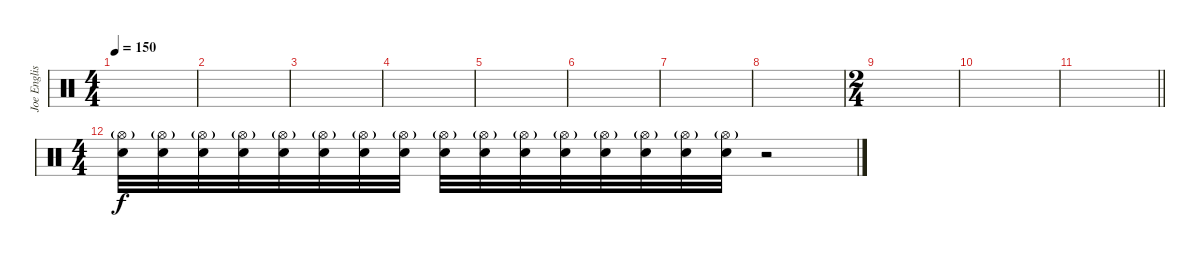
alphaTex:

\track ("Joe English" "Joe Englis") {instrument percussion}
\staff {score}
\articulation defaults
\ts (4 4)
\tempo 150
\clef neutral
\ks c
|
|
|
|
|
|
|
|
\ts (2 4)
|
|
\barLineRight lightlight
|
\ts (4 4)
("Hi-Hat (open)"{g} "Snare (hit) 2").32{volume 0} ("Hi-Hat (open)"{g} "Snare (hit) 2").32{volume 13} ("Hi-Hat (open)"{g} "Snare (hit) 2").32 ("Hi-Hat (open)"{g} "Snare (hit) 2").32 ("Hi-Hat (open)"{g} "Snare (hit) 2").32 ("Hi-Hat (open)"{g} "Snare (hit) 2").32 ("Hi-Hat (open)"{g} "Snare (hit) 2").32 ("Hi-Hat (open)"{g} "Snare (hit) 2").32 ("Hi-Hat (open)"{g} "Snare (hit) 2").32 ("Hi-Hat (open)"{g} "Snare (hit) 2").32 ("Hi-Hat (open)"{g} "Snare (hit) 2").32 ("Hi-Hat (open)"{g} "Snare (hit) 2").32 ("Hi-Hat (open)"{g} "Snare (hit) 2").32 ("Hi-Hat (open)"{g} "Snare (hit) 2").32 ("Hi-Hat (open)"{g} "Snare (hit) 2").32 ("Hi-Hat (open)"{g} "Snare (hit) 2").32 r.2
